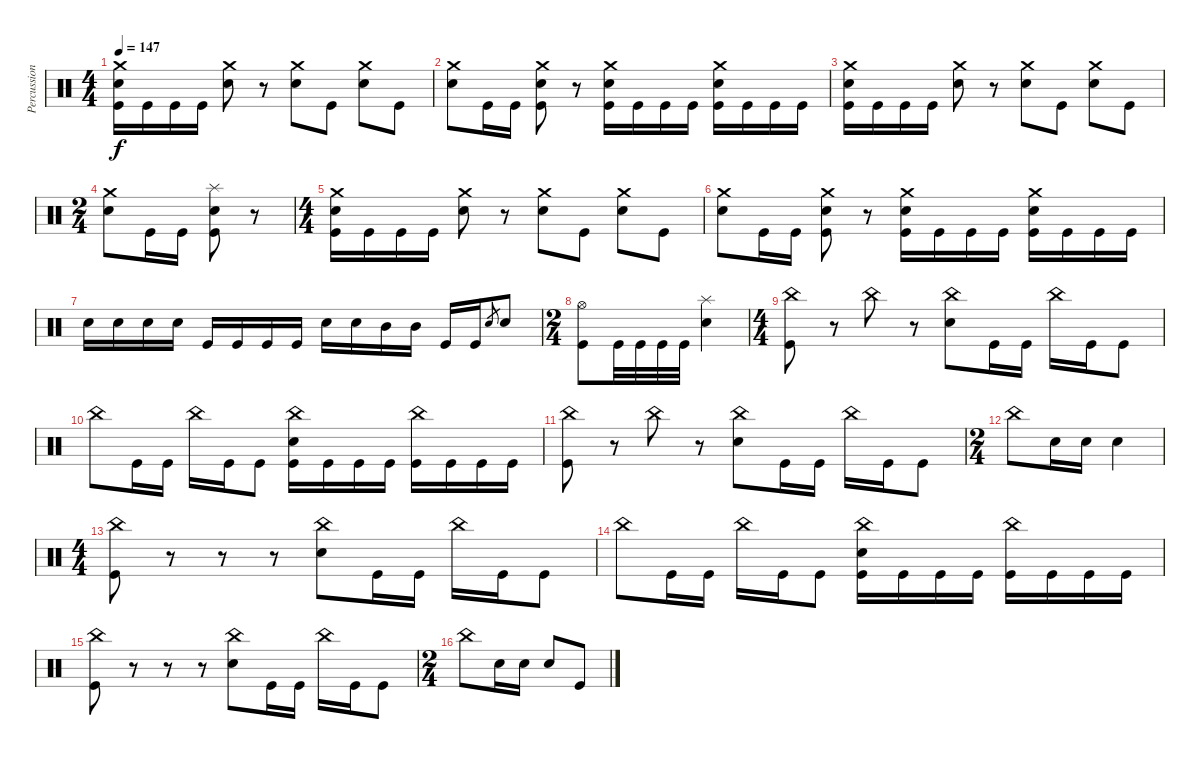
\track ("Percussion" "Percussion") {instrument percussion}
\staff {score}
\articulation defaults
\ts (4 4)
\tempo 147
\clef neutral
\ks c
("Crash medium (hit)" "Snare (hit) 2" "Kick (hit)").16{dy f} "Kick (hit)".16 "Kick (hit)".16 "Kick (hit)".16 ("Crash medium (hit)" "Snare (hit) 2").8 r.8 ("Crash medium (hit)" "Snare (hit) 2").8 "Kick (hit)".8 ("Crash medium (hit)" "Snare (hit) 2").8 "Kick (hit)".8 |
("Crash medium (hit)" "Snare (hit) 2").8 "Kick (hit)".16 "Kick (hit)".16 ("Crash medium (hit)" "Snare (hit) 2" "Kick (hit)").8 r.8 ("Crash medium (hit)" "Snare (hit) 2" "Kick (hit)").16 "Kick (hit)".16 "Kick (hit)".16 "Kick (hit)".16 ("Crash medium (hit)" "Snare (hit) 2" "Kick (hit)").16 "Kick (hit)".16 "Kick (hit)".16 "Kick (hit)".16 |
("Crash medium (hit)" "Snare (hit) 2" "Kick (hit)").16 "Kick (hit)".16 "Kick (hit)".16 "Kick (hit)".16 ("Crash medium (hit)" "Snare (hit) 2").8 r.8 ("Crash medium (hit)" "Snare (hit) 2").8 "Kick (hit)".8 ("Crash medium (hit)" "Snare (hit) 2").8 "Kick (hit)".8 |
\ts (2 4)
("Crash medium (hit)" "Snare (hit) 2").8 "Kick (hit)".16 "Kick (hit)".16 ("Splash (hit)" "Snare (hit) 2" "Kick (hit)").8 r.8 |
\ts (4 4)
("Crash medium (hit)" "Snare (hit) 2" "Kick (hit)").16 "Kick (hit)".16 "Kick (hit)".16 "Kick (hit)".16 ("Crash medium (hit)" "Snare (hit) 2").8 r.8 ("Crash medium (hit)" "Snare (hit) 2").8 "Kick (hit)".8 ("Crash medium (hit)" "Snare (hit) 2").8 "Kick (hit)".8 |
("Crash medium (hit)" "Snare (hit) 2").8 "Kick (hit)".16 "Kick (hit)".16 ("Crash medium (hit)" "Snare (hit) 2" "Kick (hit)").8 r.8 ("Crash medium (hit)" "Snare (hit) 2" "Kick (hit)").16 "Kick (hit)".16 "Kick (hit)".16 "Kick (hit)".16 ("Crash medium (hit)" "Snare (hit) 2" "Kick (hit)").16 "Kick (hit)".16 "Kick (hit)".16 "Kick (hit)".16 |
"Snare (hit) 2".16 "Snare (hit) 2".16 "Snare (hit) 2".16 "Snare (hit) 2".16 "Kick (hit)".16 "Kick (hit)".16 "Kick (hit)".16 "Kick (hit)".16 "Snare (hit) 2".16 "Snare (hit) 2".16 "Mid Tom (hit)".16 "Mid Tom (hit)".16 "Kick (hit)".16 "Kick (hit)".16 "Snare (hit) 2".8{gr} "Snare (hit) 2".8 |
\ts (2 4)
("Hi-Hat (open)" "Kick (hit)").8 "Kick (hit)".32 "Kick (hit)".32 "Kick (hit)".32 "Kick (hit)".32 ("Splash (hit)" "Snare (hit) 2").4 |
\ts (4 4)
("China (hit)" "Kick (hit)").8 r.8 "China (hit)".8 r.8 ("China (hit)" "Snare (hit) 2").8 "Kick (hit)".16 "Kick (hit)".16 "China (hit)".16 "Kick (hit)".16 "Kick (hit)".8 |
"China (hit)".8 "Kick (hit)".16 "Kick (hit)".16 "China (hit)".16 "Kick (hit)".16 "Kick (hit)".8 ("China (hit)" "Snare (hit) 2" "Kick (hit)").16 "Kick (hit)".16 "Kick (hit)".16 "Kick (hit)".16 ("China (hit)" "Kick (hit)").16 "Kick (hit)".16 "Kick (hit)".16 "Kick (hit)".16 |
("China (hit)" "Kick (hit)").8 r.8 "China (hit)".8 r.8 ("China (hit)" "Snare (hit) 2").8 "Kick (hit)".16 "Kick (hit)".16 "China (hit)".16 "Kick (hit)".16 "Kick (hit)".8 |
\ts (2 4)
"China (hit)".8 "Snare (hit) 2".16 "Snare (hit) 2".16 "Snare (hit) 2".4 |
\ts (4 4)
("China (hit)" "Kick (hit)").8 r.8 r.8 r.8 ("China (hit)" "Snare (hit) 2").8 "Kick (hit)".16 "Kick (hit)".16 "China (hit)".16 "Kick (hit)".16 "Kick (hit)".8 |
"China (hit)".8 "Kick (hit)".16 "Kick (hit)".16 "China (hit)".16 "Kick (hit)".16 "Kick (hit)".8 ("China (hit)" "Snare (hit) 2" "Kick (hit)").16 "Kick (hit)".16 "Kick (hit)".16 "Kick (hit)".16 ("China (hit)" "Kick (hit)").16 "Kick (hit)".16 "Kick (hit)".16 "Kick (hit)".16 |
("China (hit)" "Kick (hit)").8 r.8 r.8 r.8 ("China (hit)" "Snare (hit) 2").8 "Kick (hit)".16 "Kick (hit)".16 "China (hit)".16 "Kick (hit)".16 "Kick (hit)".8 |
\ts (2 4)
"China (hit)".8 "Snare (hit) 2".16 "Snare (hit) 2".16 "Snare (hit) 2".8 "Kick (hit)".8
